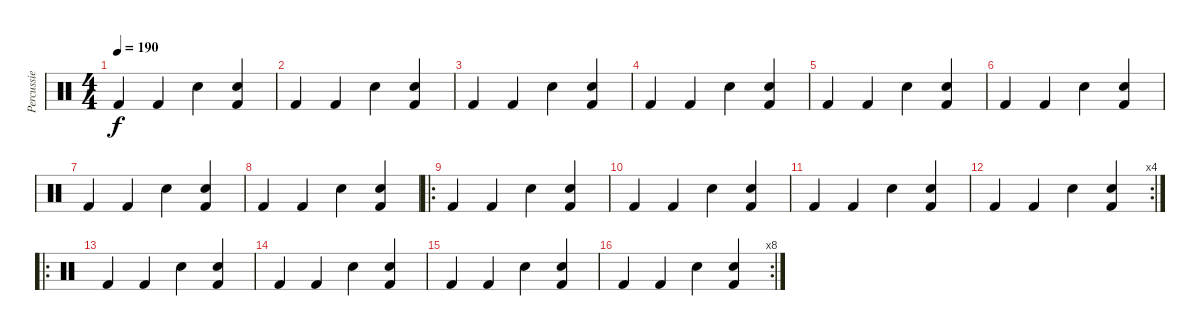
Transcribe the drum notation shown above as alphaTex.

\track ("Percussie" "Percussie") {instrument percussion}
\staff {score}
\articulation defaults
\ts (4 4)
\tempo 190
\clef neutral
\ks c "Kick (hit) 2".4{dy f} "Kick (hit) 2".4 "Snare (hit) 2".4
("Snare (hit) 2" "Kick (hit) 2").4 |
"Kick (hit) 2".4 "Kick (hit) 2".4 "Snare (hit) 2".4 ("Snare (hit) 2" "Kick (hit) 2").4 |
"Kick (hit) 2".4 "Kick (hit) 2".4 "Snare (hit) 2".4 ("Snare (hit) 2" "Kick (hit) 2").4 |
"Kick (hit) 2".4 "Kick (hit) 2".4 "Snare (hit) 2".4 ("Snare (hit) 2" "Kick (hit) 2").4 |
"Kick (hit) 2".4 "Kick (hit) 2".4 "Snare (hit) 2".4 ("Snare (hit) 2" "Kick (hit) 2").4 |
"Kick (hit) 2".4 "Kick (hit) 2".4 "Snare (hit) 2".4 ("Snare (hit) 2" "Kick (hit) 2").4 |
"Kick (hit) 2".4 "Kick (hit) 2".4 "Snare (hit) 2".4 ("Snare (hit) 2" "Kick (hit) 2").4 |
"Kick (hit) 2".4 "Kick (hit) 2".4 "Snare (hit) 2".4 ("Snare (hit) 2" "Kick (hit) 2").4 |
\ro "Kick (hit) 2".4 "Kick (hit) 2".4 "Snare (hit) 2".4
("Snare (hit) 2" "Kick (hit) 2").4 |
"Kick (hit) 2".4 "Kick (hit) 2".4 "Snare (hit) 2".4 ("Snare (hit) 2" "Kick (hit) 2").4 |
"Kick (hit) 2".4 "Kick (hit) 2".4 "Snare (hit) 2".4 ("Snare (hit) 2" "Kick (hit) 2").4 |
\rc 4 "Kick (hit) 2".4 "Kick (hit) 2".4 "Snare (hit) 2".4
("Snare (hit) 2" "Kick (hit) 2").4 |
\ro "Kick (hit) 2".4 "Kick (hit) 2".4 "Snare (hit) 2".4
("Snare (hit) 2" "Kick (hit) 2").4 |
"Kick (hit) 2".4 "Kick (hit) 2".4 "Snare (hit) 2".4 ("Snare (hit) 2" "Kick (hit) 2").4 |
"Kick (hit) 2".4 "Kick (hit) 2".4 "Snare (hit) 2".4 ("Snare (hit) 2" "Kick (hit) 2").4 |
\rc 8 "Kick (hit) 2".4 "Kick (hit) 2".4 "Snare (hit) 2".4
("Snare (hit) 2" "Kick (hit) 2").4
